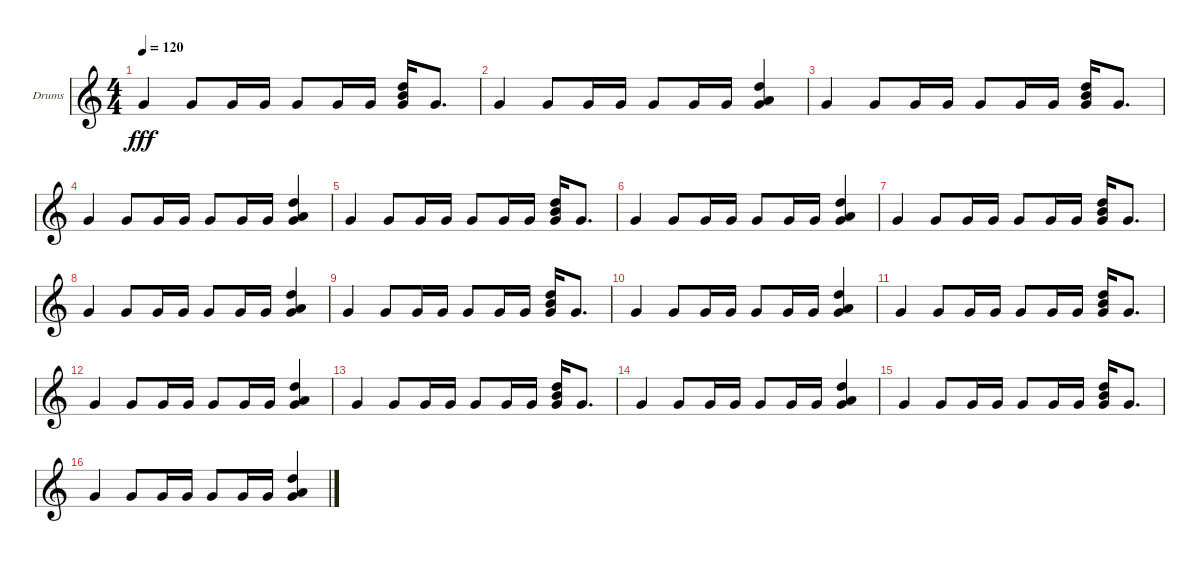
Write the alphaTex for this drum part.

\defaultSystemsLayout 4
\bracketExtendMode groupsimilarinstruments
\firstSystemTrackNameOrientation horizontal
\otherSystemsTrackNameOrientation horizontal
\track ("Drumkit" "Drums") {instrument percussion}
\staff {score}
\articulation defaults
\ts (4 4)
\tempo 120
\clef g2
\scale
0.333333
\ks c "Very Low Tom (hit)".4{dy fff} "Very Low Tom (hit)".8 "Very Low Tom (hit)".16 "Very Low Tom (hit)".16 "Very Low Tom (hit)".8 "Very Low Tom (hit)".16 "Very Low Tom (hit)".16
("Very Low Tom (hit)" "High Tom (hit)" "Mid Tom (hit)").16 "Very Low Tom (hit)".8{d} |
\scale
0.333333 "Very Low Tom (hit)".4 "Very Low Tom (hit)".8 "Very Low Tom (hit)".16 "Very Low Tom (hit)".16 "Very Low Tom (hit)".8 "Very Low Tom (hit)".16 "Very Low Tom (hit)".16 ("Very Low Tom (hit)" "Low Tom (hit)" "High Tom (hit)").4 |
\scale
0.333333 "Very Low Tom (hit)".4 "Very Low Tom (hit)".8 "Very Low Tom (hit)".16 "Very Low Tom (hit)".16 "Very Low Tom (hit)".8 "Very Low Tom (hit)".16 "Very Low Tom (hit)".16 ("Very Low Tom (hit)" "High Tom (hit)" "Mid Tom (hit)").16 "Very Low Tom (hit)".8{d} |
\scale
0.333333 "Very Low Tom (hit)".4 "Very Low Tom (hit)".8 "Very Low Tom (hit)".16 "Very Low Tom (hit)".16 "Very Low Tom (hit)".8 "Very Low Tom (hit)".16 "Very Low Tom (hit)".16 ("Very Low Tom (hit)" "Low Tom (hit)" "High Tom (hit)").4 |
\scale
0.333333 "Very Low Tom (hit)".4 "Very Low Tom (hit)".8 "Very Low Tom (hit)".16 "Very Low Tom (hit)".16 "Very Low Tom (hit)".8 "Very Low Tom (hit)".16 "Very Low Tom (hit)".16 ("Very Low Tom (hit)" "High Tom (hit)" "Mid Tom (hit)").16 "Very Low Tom (hit)".8{d} |
\scale
0.333333 "Very Low Tom (hit)".4 "Very Low Tom (hit)".8 "Very Low Tom (hit)".16 "Very Low Tom (hit)".16 "Very Low Tom (hit)".8 "Very Low Tom (hit)".16 "Very Low Tom (hit)".16 ("Very Low Tom (hit)" "Low Tom (hit)" "High Tom (hit)").4 |
\scale
0.333333 "Very Low Tom (hit)".4 "Very Low Tom (hit)".8 "Very Low Tom (hit)".16 "Very Low Tom (hit)".16 "Very Low Tom (hit)".8 "Very Low Tom (hit)".16 "Very Low Tom (hit)".16 ("Very Low Tom (hit)" "High Tom (hit)" "Mid Tom (hit)").16 "Very Low Tom (hit)".8{d} |
\scale
0.333333 "Very Low Tom (hit)".4 "Very Low Tom (hit)".8 "Very Low Tom (hit)".16 "Very Low Tom (hit)".16 "Very Low Tom (hit)".8 "Very Low Tom (hit)".16 "Very Low Tom (hit)".16 ("Very Low Tom (hit)" "Low Tom (hit)" "High Tom (hit)").4 |
\scale
0.333333 "Very Low Tom (hit)".4 "Very Low Tom (hit)".8 "Very Low Tom (hit)".16 "Very Low Tom (hit)".16 "Very Low Tom (hit)".8 "Very Low Tom (hit)".16 "Very Low Tom (hit)".16 ("Very Low Tom (hit)" "High Tom (hit)" "Mid Tom (hit)").16 "Very Low Tom (hit)".8{d} |
\scale
0.333333 "Very Low Tom (hit)".4 "Very Low Tom (hit)".8 "Very Low Tom (hit)".16 "Very Low Tom (hit)".16 "Very Low Tom (hit)".8 "Very Low Tom (hit)".16 "Very Low Tom (hit)".16 ("Very Low Tom (hit)" "Low Tom (hit)" "High Tom (hit)").4 |
\scale
0.333333 "Very Low Tom (hit)".4 "Very Low Tom (hit)".8 "Very Low Tom (hit)".16 "Very Low Tom (hit)".16 "Very Low Tom (hit)".8 "Very Low Tom (hit)".16 "Very Low Tom (hit)".16 ("Very Low Tom (hit)" "High Tom (hit)" "Mid Tom (hit)").16 "Very Low Tom (hit)".8{d} |
\scale
0.333333 "Very Low Tom (hit)".4 "Very Low Tom (hit)".8 "Very Low Tom (hit)".16 "Very Low Tom (hit)".16 "Very Low Tom (hit)".8 "Very Low Tom (hit)".16 "Very Low Tom (hit)".16 ("Very Low Tom (hit)" "Low Tom (hit)" "High Tom (hit)").4 |
\scale
0.333333 "Very Low Tom (hit)".4 "Very Low Tom (hit)".8 "Very Low Tom (hit)".16 "Very Low Tom (hit)".16 "Very Low Tom (hit)".8 "Very Low Tom (hit)".16 "Very Low Tom (hit)".16 ("Very Low Tom (hit)" "High Tom (hit)" "Mid Tom (hit)").16 "Very Low Tom (hit)".8{d} |
\scale
0.333333 "Very Low Tom (hit)".4 "Very Low Tom (hit)".8 "Very Low Tom (hit)".16 "Very Low Tom (hit)".16 "Very Low Tom (hit)".8 "Very Low Tom (hit)".16 "Very Low Tom (hit)".16 ("Very Low Tom (hit)" "Low Tom (hit)" "High Tom (hit)").4 |
\scale
0.333333 "Very Low Tom (hit)".4 "Very Low Tom (hit)".8 "Very Low Tom (hit)".16 "Very Low Tom (hit)".16 "Very Low Tom (hit)".8 "Very Low Tom (hit)".16 "Very Low Tom (hit)".16 ("Very Low Tom (hit)" "High Tom (hit)" "Mid Tom (hit)").16 "Very Low Tom (hit)".8{d} |
\scale
0.333333 "Very Low Tom (hit)".4 "Very Low Tom (hit)".8 "Very Low Tom (hit)".16 "Very Low Tom (hit)".16 "Very Low Tom (hit)".8 "Very Low Tom (hit)".16 "Very Low Tom (hit)".16 ("Very Low Tom (hit)" "Low Tom (hit)" "High Tom (hit)").4
